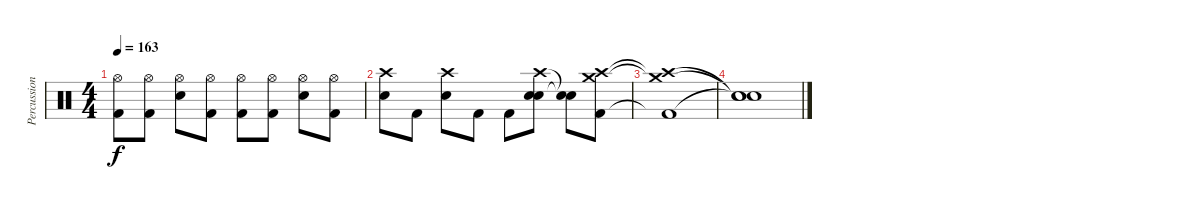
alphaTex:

\track ("Percussion" "Percussion") {instrument percussion}
\staff {score}
\articulation defaults
\ts (4 4)
\tempo 163
\clef neutral
\ks c
("Hi-Hat (open)" "Kick (hit) 2").8{dy f} ("Hi-Hat (open)" "Kick (hit) 2").8 ("Hi-Hat (open)" "Snare (hit) 2").8 ("Hi-Hat (open)" "Kick (hit) 2").8 ("Hi-Hat (open)" "Kick (hit) 2").8 ("Hi-Hat (open)" "Kick (hit) 2").8 ("Hi-Hat (open)" "Snare (hit) 2").8 ("Hi-Hat (open)" "Kick (hit) 2").8 |
("Crash high (hit)" "Snare (hit) 2").8 "Kick (hit) 2".8 ("Crash high (hit)" "Snare (hit) 2").8 "Kick (hit) 2".8 "Kick (hit) 2".8 ("Crash high (hit)" "Snare (hit) 2" "Snare (hit) 2").8 ("Snare (hit)"{t} "Snare (hit)"{t}).8 ("Crash high (hit)" "Crash medium (hit)" "Kick (hit) 2").8 |
("Crash high (hit)"{t} "Crash medium (hit)"{t} "Kick (hit) 2"{t}).1 |
("Snare (hit)"{t} "Snare (hit)"{t} "Snare (hit)"{t}).1
